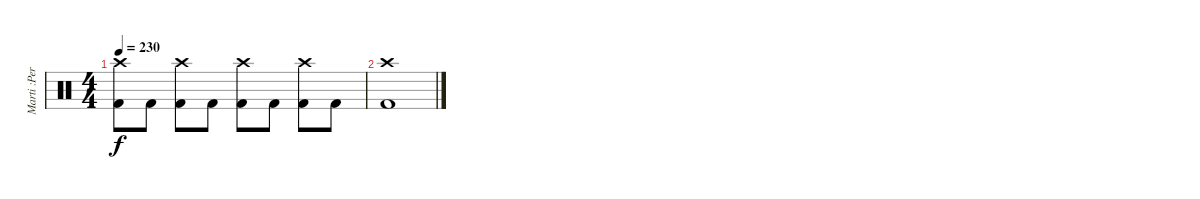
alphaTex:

\track ("Marti :Percussion" "Marti :Per") {instrument percussion}
\staff {score}
\articulation defaults
\ts (4 4)
\tempo 230
\clef neutral
\ks c
("Crash high (hit)" "Kick (hit) 2").8{dy f} "Kick (hit) 2".8 ("Crash high (hit)" "Kick (hit) 2").8 "Kick (hit) 2".8 ("Crash high (hit)" "Kick (hit) 2").8 "Kick (hit) 2".8 ("Crash high (hit)" "Kick (hit) 2").8 "Kick (hit) 2".8 |
("Crash high (hit)" "Kick (hit) 2").1
